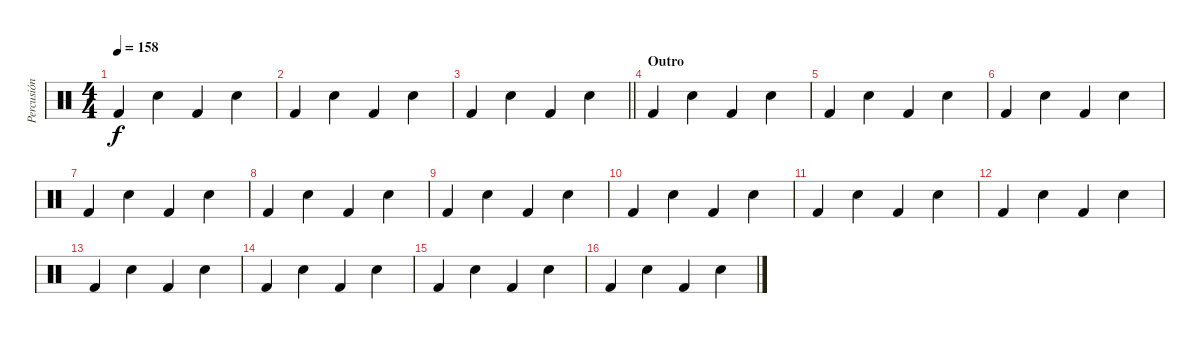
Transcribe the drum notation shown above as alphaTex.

\track ("Percusión" "Percusión") {instrument percussion}
\staff {score}
\articulation defaults
\ts (4 4)
\tempo 158
\clef neutral
\ks c "Kick (hit) 2".4{dy f} "Electric Snare (hit)".4 "Kick (hit) 2".4 "Electric Snare (hit)".4
|
"Kick (hit) 2".4{volume 16} "Electric Snare (hit)".4 "Kick (hit) 2".4 "Electric Snare (hit)".4 |
\barLineRight lightlight "Kick (hit) 2".4{volume 16} "Electric Snare (hit)".4 "Kick (hit) 2".4 "Electric Snare (hit)".4
|
\section ("" "Outro")
"Kick (hit) 2".4{volume 16} "Electric Snare (hit)".4 "Kick (hit) 2".4 "Electric Snare (hit)".4 |
"Kick (hit) 2".4 "Electric Snare (hit)".4 "Kick (hit) 2".4 "Electric Snare (hit)".4 |
"Kick (hit) 2".4{volume 16} "Electric Snare (hit)".4 "Kick (hit) 2".4 "Electric Snare (hit)".4 |
"Kick (hit) 2".4 "Electric Snare (hit)".4 "Kick (hit) 2".4 "Electric Snare (hit)".4 |
"Kick (hit) 2".4{volume 16} "Electric Snare (hit)".4 "Kick (hit) 2".4 "Electric Snare (hit)".4 |
"Kick (hit) 2".4 "Electric Snare (hit)".4 "Kick (hit) 2".4 "Electric Snare (hit)".4 |
"Kick (hit) 2".4{volume 16} "Electric Snare (hit)".4 "Kick (hit) 2".4 "Electric Snare (hit)".4 |
"Kick (hit) 2".4 "Electric Snare (hit)".4 "Kick (hit) 2".4 "Electric Snare (hit)".4 |
"Kick (hit) 2".4{volume 16} "Electric Snare (hit)".4 "Kick (hit) 2".4 "Electric Snare (hit)".4 |
"Kick (hit) 2".4 "Electric Snare (hit)".4 "Kick (hit) 2".4 "Electric Snare (hit)".4 |
"Kick (hit) 2".4{volume 16} "Electric Snare (hit)".4 "Kick (hit) 2".4 "Electric Snare (hit)".4 |
"Kick (hit) 2".4 "Electric Snare (hit)".4 "Kick (hit) 2".4 "Electric Snare (hit)".4 |
"Kick (hit) 2".4{volume 16} "Electric Snare (hit)".4 "Kick (hit) 2".4 "Electric Snare (hit)".4
